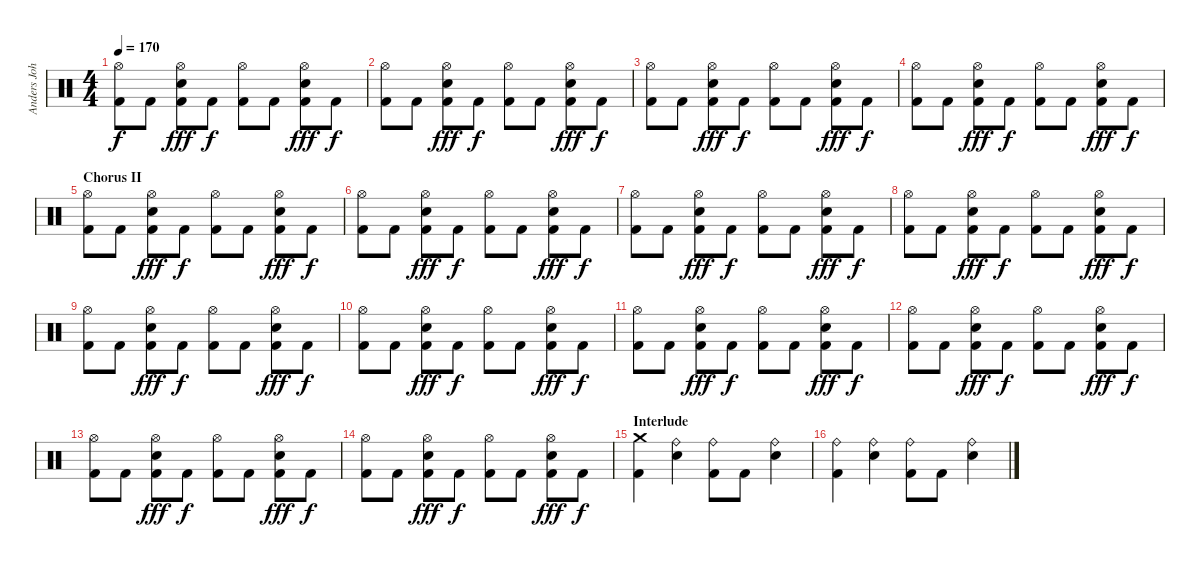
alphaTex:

\track ("Anders Johansson" "Anders Joh") {instrument percussion}
\staff {score}
\articulation defaults
\ts (4 4)
\tempo 170
\clef neutral
\ks c
("Hi-Hat (open)" "Kick (hit) 2").8{dy f} "Kick (hit) 2".8 ("Hi-Hat (open)" "Snare (hit) 2" "Kick (hit) 2").8{dy fff} "Kick (hit) 2".8{dy f} ("Hi-Hat (open)" "Kick (hit) 2").8 "Kick (hit) 2".8 ("Hi-Hat (open)" "Snare (hit) 2" "Kick (hit) 2").8{dy fff} "Kick (hit) 2".8{dy f} |
("Hi-Hat (open)" "Kick (hit) 2").8 "Kick (hit) 2".8 ("Hi-Hat (open)" "Snare (hit) 2" "Kick (hit) 2").8{dy fff} "Kick (hit) 2".8{dy f} ("Hi-Hat (open)" "Kick (hit) 2").8 "Kick (hit) 2".8 ("Hi-Hat (open)" "Snare (hit) 2" "Kick (hit) 2").8{dy fff} "Kick (hit) 2".8{dy f} |
("Hi-Hat (open)" "Kick (hit) 2").8 "Kick (hit) 2".8 ("Hi-Hat (open)" "Snare (hit) 2" "Kick (hit) 2").8{dy fff} "Kick (hit) 2".8{dy f} ("Hi-Hat (open)" "Kick (hit) 2").8 "Kick (hit) 2".8 ("Hi-Hat (open)" "Snare (hit) 2" "Kick (hit) 2").8{dy fff} "Kick (hit) 2".8{dy f} |
("Hi-Hat (open)" "Kick (hit) 2").8 "Kick (hit) 2".8 ("Hi-Hat (open)" "Snare (hit) 2" "Kick (hit) 2").8{dy fff} "Kick (hit) 2".8{dy f} ("Hi-Hat (open)" "Kick (hit) 2").8 "Kick (hit) 2".8 ("Hi-Hat (open)" "Snare (hit) 2" "Kick (hit) 2").8{dy fff} "Kick (hit) 2".8{dy f} |
\section ("" "Chorus II")
("Hi-Hat (open)" "Kick (hit) 2").8 "Kick (hit) 2".8 ("Hi-Hat (open)" "Snare (hit) 2" "Kick (hit) 2").8{dy fff} "Kick (hit) 2".8{dy f} ("Hi-Hat (open)" "Kick (hit) 2").8 "Kick (hit) 2".8 ("Hi-Hat (open)" "Snare (hit) 2" "Kick (hit) 2").8{dy fff} "Kick (hit) 2".8{dy f} |
("Hi-Hat (open)" "Kick (hit) 2").8 "Kick (hit) 2".8 ("Hi-Hat (open)" "Snare (hit) 2" "Kick (hit) 2").8{dy fff} "Kick (hit) 2".8{dy f} ("Hi-Hat (open)" "Kick (hit) 2").8 "Kick (hit) 2".8 ("Hi-Hat (open)" "Snare (hit) 2" "Kick (hit) 2").8{dy fff} "Kick (hit) 2".8{dy f} |
("Hi-Hat (open)" "Kick (hit) 2").8 "Kick (hit) 2".8 ("Hi-Hat (open)" "Snare (hit) 2" "Kick (hit) 2").8{dy fff} "Kick (hit) 2".8{dy f} ("Hi-Hat (open)" "Kick (hit) 2").8 "Kick (hit) 2".8 ("Hi-Hat (open)" "Snare (hit) 2" "Kick (hit) 2").8{dy fff} "Kick (hit) 2".8{dy f} |
("Hi-Hat (open)" "Kick (hit) 2").8 "Kick (hit) 2".8 ("Hi-Hat (open)" "Snare (hit) 2" "Kick (hit) 2").8{dy fff} "Kick (hit) 2".8{dy f} ("Hi-Hat (open)" "Kick (hit) 2").8 "Kick (hit) 2".8 ("Hi-Hat (open)" "Snare (hit) 2" "Kick (hit) 2").8{dy fff} "Kick (hit) 2".8{dy f} |
("Hi-Hat (open)" "Kick (hit) 2").8 "Kick (hit) 2".8 ("Hi-Hat (open)" "Snare (hit) 2" "Kick (hit) 2").8{dy fff} "Kick (hit) 2".8{dy f} ("Hi-Hat (open)" "Kick (hit) 2").8 "Kick (hit) 2".8 ("Hi-Hat (open)" "Snare (hit) 2" "Kick (hit) 2").8{dy fff} "Kick (hit) 2".8{dy f} |
("Hi-Hat (open)" "Kick (hit) 2").8 "Kick (hit) 2".8 ("Hi-Hat (open)" "Snare (hit) 2" "Kick (hit) 2").8{dy fff} "Kick (hit) 2".8{dy f} ("Hi-Hat (open)" "Kick (hit) 2").8 "Kick (hit) 2".8 ("Hi-Hat (open)" "Snare (hit) 2" "Kick (hit) 2").8{dy fff} "Kick (hit) 2".8{dy f} |
("Hi-Hat (open)" "Kick (hit) 2").8 "Kick (hit) 2".8 ("Hi-Hat (open)" "Snare (hit) 2" "Kick (hit) 2").8{dy fff} "Kick (hit) 2".8{dy f} ("Hi-Hat (open)" "Kick (hit) 2").8 "Kick (hit) 2".8 ("Hi-Hat (open)" "Snare (hit) 2" "Kick (hit) 2").8{dy fff} "Kick (hit) 2".8{dy f} |
("Hi-Hat (open)" "Kick (hit) 2").8 "Kick (hit) 2".8 ("Hi-Hat (open)" "Snare (hit) 2" "Kick (hit) 2").8{dy fff} "Kick (hit) 2".8{dy f} ("Hi-Hat (open)" "Kick (hit) 2").8 "Kick (hit) 2".8 ("Hi-Hat (open)" "Snare (hit) 2" "Kick (hit) 2").8{dy fff} "Kick (hit) 2".8{dy f} |
("Hi-Hat (open)" "Kick (hit) 2").8 "Kick (hit) 2".8 ("Hi-Hat (open)" "Snare (hit) 2" "Kick (hit) 2").8{dy fff} "Kick (hit) 2".8{dy f} ("Hi-Hat (open)" "Kick (hit) 2").8 "Kick (hit) 2".8 ("Hi-Hat (open)" "Snare (hit) 2" "Kick (hit) 2").8{dy fff} "Kick (hit) 2".8{dy f} |
("Hi-Hat (open)" "Kick (hit) 2").8 "Kick (hit) 2".8 ("Hi-Hat (open)" "Snare (hit) 2" "Kick (hit) 2").8{dy fff} "Kick (hit) 2".8{dy f} ("Hi-Hat (open)" "Kick (hit) 2").8 "Kick (hit) 2".8 ("Hi-Hat (open)" "Snare (hit) 2" "Kick (hit) 2").8{dy fff} "Kick (hit) 2".8{dy f} |
\section ("" "Interlude")
("Crash medium (hit)" "Kick (hit) 2").4 ("Ride (bell)" "Snare (hit) 2").4 ("Ride (bell)" "Kick (hit) 2").8 "Kick (hit) 2".8 ("Ride (bell)" "Snare (hit) 2").4 |
("Ride (bell)" "Kick (hit) 2").4 ("Ride (bell)" "Snare (hit) 2").4 ("Ride (bell)" "Kick (hit) 2").8 "Kick (hit) 2".8 ("Ride (bell)" "Snare (hit) 2").4
